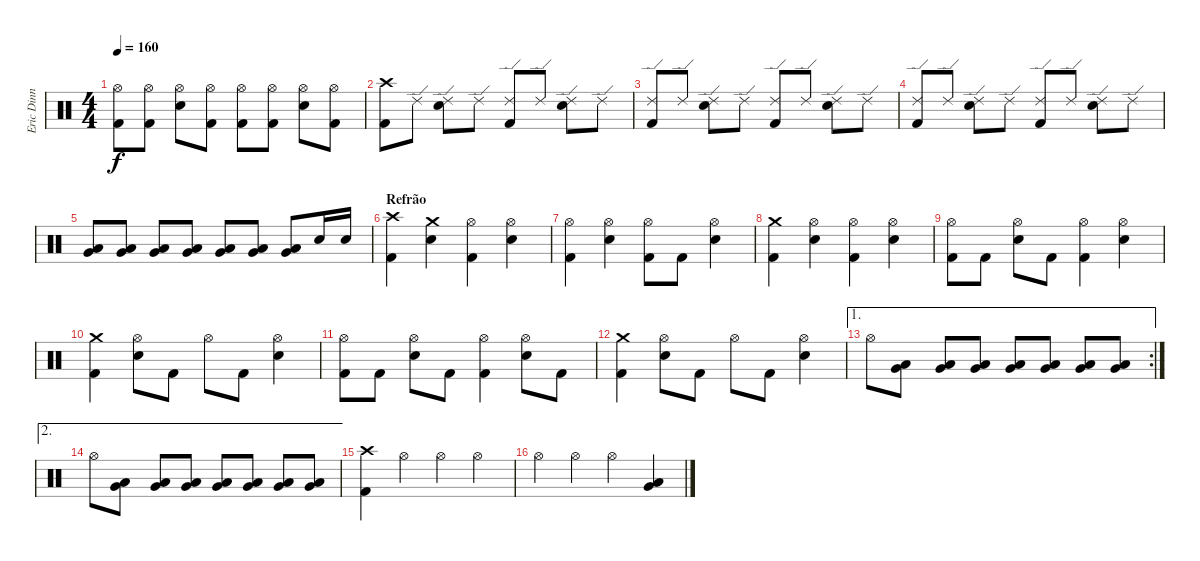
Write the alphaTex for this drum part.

\track ("Eric Dinn" "Eric Dinn") {instrument percussion}
\staff {score}
\articulation defaults
\ts (4 4)
\tempo 160
\clef neutral
\ks c
("Hi-Hat (open)" "Kick (hit) 2").8{dy f} ("Hi-Hat (open)" "Kick (hit) 2").8 ("Hi-Hat (open)" "Snare (hit) 2").8 ("Hi-Hat (open)" "Kick (hit) 2").8 ("Hi-Hat (open)" "Kick (hit) 2").8 ("Hi-Hat (open)" "Kick (hit) 2").8 ("Hi-Hat (open)" "Snare (hit) 2").8 ("Hi-Hat (open)" "Kick (hit) 2").8 |
("Crash high (hit)" "Kick (hit) 2").8 "Ride (edge) 2".8 ("Ride (edge) 2" "Snare (hit) 2").8 "Ride (edge) 2".8 ("Ride (edge) 2" "Kick (hit) 2").8 "Ride (edge) 2".8 ("Ride (edge) 2" "Snare (hit) 2").8 "Ride (edge) 2".8 |
("Ride (edge) 2" "Kick (hit) 2").8 "Ride (edge) 2".8 ("Ride (edge) 2" "Snare (hit) 2").8 "Ride (edge) 2".8 ("Ride (edge) 2" "Kick (hit) 2").8 "Ride (edge) 2".8 ("Ride (edge) 2" "Snare (hit) 2").8 "Ride (edge) 2".8 |
("Ride (edge) 2" "Kick (hit) 2").8 "Ride (edge) 2".8 ("Ride (edge) 2" "Snare (hit) 2").8 "Ride (edge) 2".8 ("Ride (edge) 2" "Kick (hit) 2").8 "Ride (edge) 2".8 ("Ride (edge) 2" "Snare (hit) 2").8 "Ride (edge) 2".8 |
("Very Low Tom (hit)" "Low Tom (hit)").8 ("Very Low Tom (hit)" "Low Tom (hit)").8 ("Very Low Tom (hit)" "Low Tom (hit)").8 ("Very Low Tom (hit)" "Low Tom (hit)").8 ("Very Low Tom (hit)" "Low Tom (hit)").8 ("Very Low Tom (hit)" "Low Tom (hit)").8 ("Very Low Tom (hit)" "Low Tom (hit)").8 "Snare (hit) 2".16 "Snare (hit) 2".16 |
\section ("" "Refrão")
("Crash high (hit)" "Kick (hit) 2").4 ("Crash medium (hit)" "Snare (hit) 2").4 ("Hi-Hat (open)" "Kick (hit) 2").4 ("Hi-Hat (open)" "Snare (hit) 2").4 |
("Hi-Hat (open)" "Kick (hit) 2").4 ("Hi-Hat (open)" "Snare (hit) 2").4 ("Hi-Hat (open)" "Kick (hit) 2").8 "Kick (hit) 2".8 ("Hi-Hat (open)" "Snare (hit) 2").4 |
("Crash medium (hit)" "Kick (hit) 2").4 ("Hi-Hat (open)" "Snare (hit) 2").4 ("Hi-Hat (open)" "Kick (hit) 2").4 ("Hi-Hat (open)" "Snare (hit) 2").4 |
("Hi-Hat (open)" "Kick (hit) 2").8 "Kick (hit) 2".8 ("Hi-Hat (open)" "Snare (hit) 2").8 "Kick (hit) 2".8 ("Hi-Hat (open)" "Kick (hit) 2").4 ("Hi-Hat (open)" "Snare (hit) 2").4 |
("Crash medium (hit)" "Kick (hit) 2").4 ("Hi-Hat (open)" "Snare (hit) 2").8 "Kick (hit) 2".8 "Hi-Hat (open)".8 "Kick (hit) 2".8 ("Hi-Hat (open)" "Snare (hit) 2").4 |
("Hi-Hat (open)" "Kick (hit) 2").8 "Kick (hit) 2".8 ("Hi-Hat (open)" "Snare (hit) 2").8 "Kick (hit) 2".8 ("Hi-Hat (open)" "Kick (hit) 2").4 ("Hi-Hat (open)" "Snare (hit) 2").8 "Kick (hit) 2".8 |
("Crash medium (hit)" "Kick (hit) 2").4 ("Hi-Hat (open)" "Snare (hit) 2").8 "Kick (hit) 2".8 "Hi-Hat (open)".8 "Kick (hit) 2".8 ("Hi-Hat (open)" "Snare (hit) 2").4 |
\ae 1
\rc 2 "Hi-Hat (open)".8
("Very Low Tom (hit)" "Low Tom (hit)").8 ("Very Low Tom (hit)" "Low Tom (hit)").8 ("Very Low Tom (hit)" "Low Tom (hit)").8 ("Very Low Tom (hit)" "Low Tom (hit)").8 ("Very Low Tom (hit)" "Low Tom (hit)").8 ("Very Low Tom (hit)" "Low Tom (hit)").8 ("Very Low Tom (hit)" "Low Tom (hit)").8 |
\ae 2 "Hi-Hat (open)".8
("Very Low Tom (hit)" "Low Tom (hit)").8 ("Very Low Tom (hit)" "Low Tom (hit)").8 ("Very Low Tom (hit)" "Low Tom (hit)").8 ("Very Low Tom (hit)" "Low Tom (hit)").8 ("Very Low Tom (hit)" "Low Tom (hit)").8 ("Very Low Tom (hit)" "Low Tom (hit)").8 ("Very Low Tom (hit)" "Low Tom (hit)").8 |
("Crash high (hit)" "Kick (hit) 2").4 "Hi-Hat (open)".4 "Hi-Hat (open)".4 "Hi-Hat (open)".4 |
"Hi-Hat (open)".4 "Hi-Hat (open)".4 "Hi-Hat (open)".4 ("Very Low Tom (hit)" "Low Tom (hit)").4
